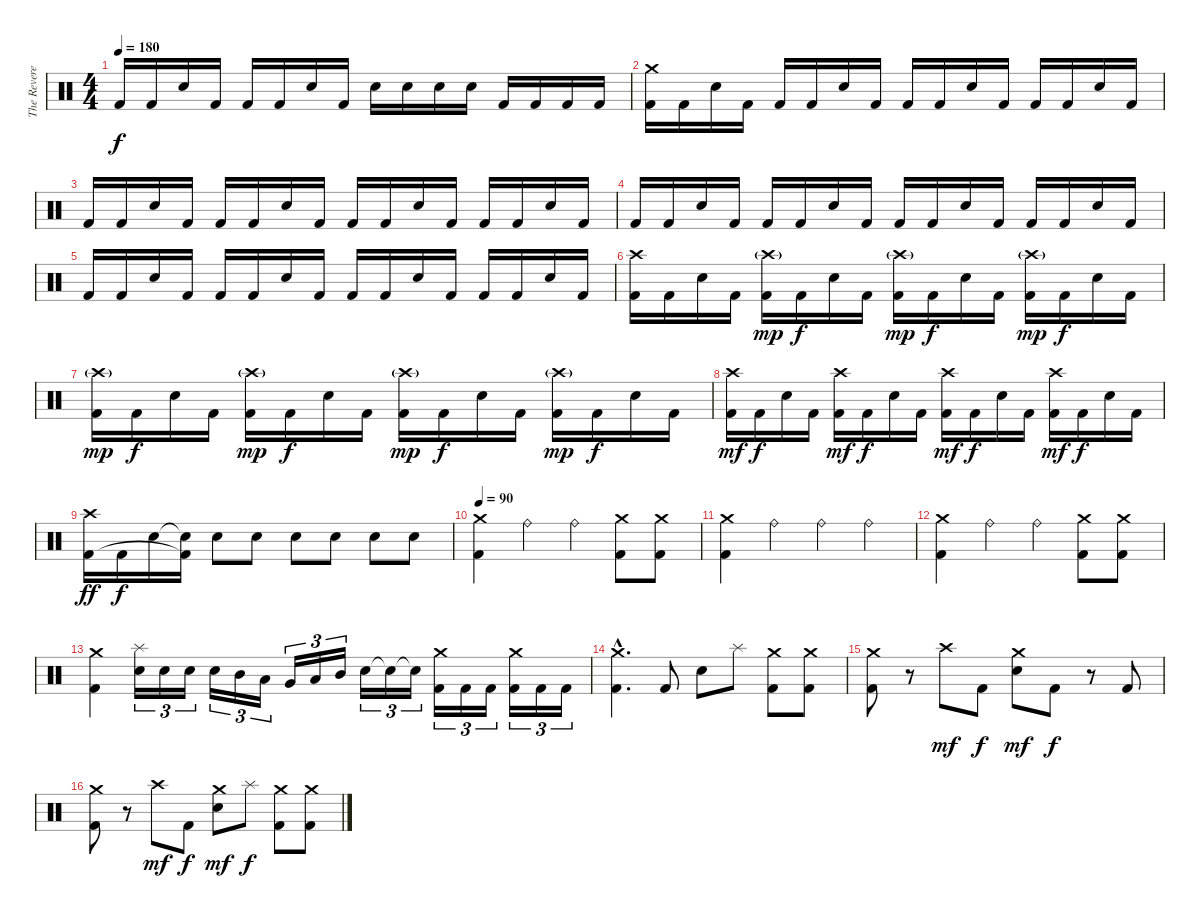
\track ("The Reverend" "The Revere") {instrument percussion}
\staff {score}
\articulation defaults
\ts (4 4)
\tempo 180
\clef neutral
\ks c "Kick (hit) 2".16{dy f} "Kick (hit) 2".16 "Snare (hit) 2".16 "Kick (hit) 2".16 "Kick (hit) 2".16 "Kick (hit) 2".16 "Snare (hit) 2".16 "Kick (hit) 2".16 "Snare (hit) 2".16 "Snare (hit) 2".16 "Snare (hit) 2".16 "Snare (hit) 2".16 "Kick (hit) 2".16 "Kick (hit) 2".16 "Kick (hit) 2".16 "Kick (hit) 2".16
|
("Crash medium (hit)" "Kick (hit) 2").16 "Kick (hit) 2".16 "Snare (hit) 2".16 "Kick (hit) 2".16 "Kick (hit) 2".16 "Kick (hit) 2".16 "Snare (hit) 2".16 "Kick (hit) 2".16 "Kick (hit) 2".16 "Kick (hit) 2".16 "Snare (hit) 2".16 "Kick (hit) 2".16 "Kick (hit) 2".16 "Kick (hit) 2".16 "Snare (hit) 2".16 "Kick (hit) 2".16 |
"Kick (hit) 2".16 "Kick (hit) 2".16 "Snare (hit) 2".16 "Kick (hit) 2".16 "Kick (hit) 2".16 "Kick (hit) 2".16 "Snare (hit) 2".16 "Kick (hit) 2".16 "Kick (hit) 2".16 "Kick (hit) 2".16 "Snare (hit) 2".16 "Kick (hit) 2".16 "Kick (hit) 2".16 "Kick (hit) 2".16 "Snare (hit) 2".16 "Kick (hit) 2".16 |
"Kick (hit) 2".16 "Kick (hit) 2".16 "Snare (hit) 2".16 "Kick (hit) 2".16 "Kick (hit) 2".16 "Kick (hit) 2".16 "Snare (hit) 2".16 "Kick (hit) 2".16 "Kick (hit) 2".16 "Kick (hit) 2".16 "Snare (hit) 2".16 "Kick (hit) 2".16 "Kick (hit) 2".16 "Kick (hit) 2".16 "Snare (hit) 2".16 "Kick (hit) 2".16 |
"Kick (hit) 2".16 "Kick (hit) 2".16 "Snare (hit) 2".16 "Kick (hit) 2".16 "Kick (hit) 2".16 "Kick (hit) 2".16 "Snare (hit) 2".16 "Kick (hit) 2".16 "Kick (hit) 2".16 "Kick (hit) 2".16 "Snare (hit) 2".16 "Kick (hit) 2".16 "Kick (hit) 2".16 "Kick (hit) 2".16 "Snare (hit) 2".16 "Kick (hit) 2".16 |
("Crash high (hit)" "Kick (hit) 2").16 "Kick (hit) 2".16 "Snare (hit) 2".16 "Kick (hit) 2".16 ("Crash high (hit)"{g} "Kick (hit) 2").16{dy mp} "Kick (hit) 2".16{dy f} "Snare (hit) 2".16 "Kick (hit) 2".16 ("Crash high (hit)"{g} "Kick (hit) 2").16{dy mp} "Kick (hit) 2".16{dy f} "Snare (hit) 2".16 "Kick (hit) 2".16 ("Crash high (hit)"{g} "Kick (hit) 2").16{dy mp} "Kick (hit) 2".16{dy f} "Snare (hit) 2".16 "Kick (hit) 2".16 |
("Crash high (hit)"{g} "Kick (hit) 2").16{dy mp} "Kick (hit) 2".16{dy f} "Snare (hit) 2".16 "Kick (hit) 2".16 ("Crash high (hit)"{g} "Kick (hit) 2").16{dy mp} "Kick (hit) 2".16{dy f} "Snare (hit) 2".16 "Kick (hit) 2".16 ("Crash high (hit)"{g} "Kick (hit) 2").16{dy mp} "Kick (hit) 2".16{dy f} "Snare (hit) 2".16 "Kick (hit) 2".16 ("Crash high (hit)"{g} "Kick (hit) 2").16{dy mp} "Kick (hit) 2".16{dy f} "Snare (hit) 2".16 "Kick (hit) 2".16 |
("Crash high (hit)" "Kick (hit) 2").16{dy mf} "Kick (hit) 2".16{dy f} "Snare (hit) 2".16 "Kick (hit) 2".16 ("Crash high (hit)" "Kick (hit) 2").16{dy mf} "Kick (hit) 2".16{dy f} "Snare (hit) 2".16 "Kick (hit) 2".16 ("Crash high (hit)" "Kick (hit) 2").16{dy mf} "Kick (hit) 2".16{dy f} "Snare (hit) 2".16 "Kick (hit) 2".16 ("Crash high (hit)" "Kick (hit) 2").16{dy mf} "Kick (hit) 2".16{dy f} "Snare (hit) 2".16 "Kick (hit) 2".16 |
("Crash high (hit)" "Kick (hit) 2").16{dy ff} "Kick (hit) 2".16{dy f} "Snare (hit) 2".16 ("Snare (hit)"{t} "Kick (hit) 2"{t}).16 "Snare (hit) 2".8 "Snare (hit) 2".8 "Snare (hit) 2".8 "Snare (hit) 2".8 "Snare (hit) 2".8 "Snare (hit) 2".8 |
\tempo 90
("Crash medium (hit)" "Kick (hit) 2").4 "Ride (bell)".4 "Ride (bell)".4 ("Crash medium (hit)" "Kick (hit) 2").8 ("Crash medium (hit)" "Kick (hit) 2").8 |
("Crash medium (hit)" "Kick (hit) 2").4 "Ride (bell)".4 "Ride (bell)".4 "Ride (bell)".4 |
("Crash medium (hit)" "Kick (hit) 2").4 "Ride (bell)".4 "Ride (bell)".4 ("Crash medium (hit)" "Kick (hit) 2").8 ("Crash medium (hit)" "Kick (hit) 2").8 |
("Crash medium (hit)" "Kick (hit) 2").4 ("Splash (hit)" "Snare (hit) 2").16{tu (3 2)} "Snare (hit) 2".16{tu (3 2)} "Snare (hit) 2".16{tu (3 2)} "Snare (hit) 2".16{tu (3 2)} "Mid Tom (hit)".16{tu (3 2)} "Low Tom (hit)".16{tu (3 2)} "Very Low Tom (hit)".16{tu (3 2)} "Low Tom (hit)".16{tu (3 2)} "Mid Tom (hit)".16{tu (3 2)} "Snare (hit) 2".16{tu (3 2)} "Snare (hit) 2"{t}.16{tu (3 2)} "Snare (hit)"{t}.16{tu (3 2)} ("Crash medium (hit)" "Kick (hit) 2").16{tu (3 2)} "Kick (hit) 2".16{tu (3 2)} "Kick (hit) 2".16{tu (3 2)} ("Crash medium (hit)" "Kick (hit) 2").16{tu (3 2)} "Kick (hit) 2".16{tu (3 2)} "Kick (hit) 2".16{tu (3 2)} |
("Crash medium (hit)"{hac} "Kick (hit) 2"{hac}).4{d} "Kick (hit) 2".8 "Snare (hit) 2".8 "Splash (hit)".8 ("Crash medium (hit)" "Kick (hit) 2").8 ("Crash medium (hit)" "Kick (hit) 2").8 |
("Crash medium (hit)" "Kick (hit) 2").8 r.8 "Crash high (hit)".8{dy mf} "Kick (hit) 2".8{dy f} ("Crash medium (hit)" "Snare (hit) 2").8{dy mf} "Kick (hit) 2".8{dy f} r.8 "Kick (hit) 2".8 |
("Crash medium (hit)" "Kick (hit) 2").8 r.8 "Crash high (hit)".8{dy mf} "Kick (hit) 2".8{dy f} ("Crash medium (hit)" "Snare (hit) 2").8{dy mf} "Splash (hit)".8{dy f} ("Crash medium (hit)" "Kick (hit) 2").8 ("Crash medium (hit)" "Kick (hit) 2").8
